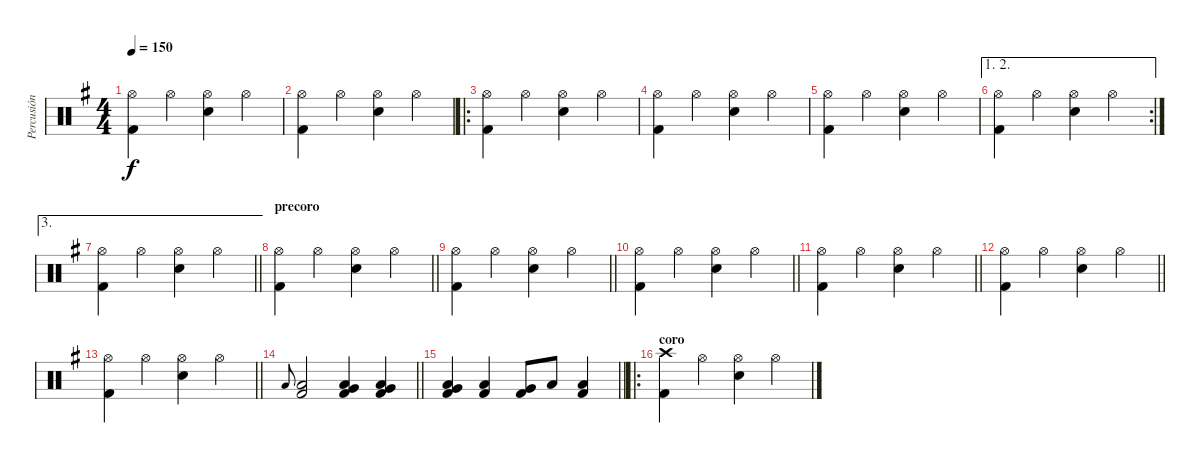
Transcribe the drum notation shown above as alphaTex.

\track ("Percusión" "Percusión") {instrument percussion}
\staff {score}
\articulation defaults
\ts (4 4)
\tempo 150
\clef neutral
\ks eminor
("Hi-Hat (open)" "Kick (hit) 2").4{dy f} "Hi-Hat (open)".4 ("Hi-Hat (open)" "Electric Snare (hit)").4 "Hi-Hat (open)".4 |
("Hi-Hat (open)" "Kick (hit) 2").4 "Hi-Hat (open)".4 ("Hi-Hat (open)" "Electric Snare (hit)").4 "Hi-Hat (open)".4 |
\ro
("Hi-Hat (open)" "Kick (hit) 2").4 "Hi-Hat (open)".4 ("Hi-Hat (open)" "Electric Snare (hit)").4 "Hi-Hat (open)".4 |
("Hi-Hat (open)" "Kick (hit) 2").4 "Hi-Hat (open)".4 ("Hi-Hat (open)" "Electric Snare (hit)").4 "Hi-Hat (open)".4 |
("Hi-Hat (open)" "Kick (hit) 2").4 "Hi-Hat (open)".4 ("Hi-Hat (open)" "Electric Snare (hit)").4 "Hi-Hat (open)".4 |
\ae (1 2)
\rc 2
("Hi-Hat (open)" "Kick (hit) 2").4 "Hi-Hat (open)".4 ("Hi-Hat (open)" "Electric Snare (hit)").4 "Hi-Hat (open)".4 |
\ae 3
\barLineRight lightlight
("Hi-Hat (open)" "Kick (hit) 2").4 "Hi-Hat (open)".4 ("Hi-Hat (open)" "Electric Snare (hit)").4 "Hi-Hat (open)".4 |
\section ("" "precoro")
\barLineRight lightlight
("Hi-Hat (open)" "Kick (hit) 2").4 "Hi-Hat (open)".4 ("Hi-Hat (open)" "Electric Snare (hit)").4 "Hi-Hat (open)".4 |
\barLineRight lightlight
("Hi-Hat (open)" "Kick (hit) 2").4 "Hi-Hat (open)".4 ("Hi-Hat (open)" "Electric Snare (hit)").4 "Hi-Hat (open)".4 |
\barLineRight lightlight
("Hi-Hat (open)" "Kick (hit) 2").4 "Hi-Hat (open)".4 ("Hi-Hat (open)" "Electric Snare (hit)").4 "Hi-Hat (open)".4 |
\barLineRight lightlight
("Hi-Hat (open)" "Kick (hit) 2").4 "Hi-Hat (open)".4 ("Hi-Hat (open)" "Electric Snare (hit)").4 "Hi-Hat (open)".4 |
\barLineRight lightlight
("Hi-Hat (open)" "Kick (hit) 2").4 "Hi-Hat (open)".4 ("Hi-Hat (open)" "Electric Snare (hit)").4 "Hi-Hat (open)".4 |
\barLineRight lightlight
("Hi-Hat (open)" "Kick (hit) 2").4 "Hi-Hat (open)".4 ("Hi-Hat (open)" "Electric Snare (hit)").4 "Hi-Hat (open)".4 |
\barLineRight lightlight "Low Floor Tom (hit)".8{gr onbeat}
("Low Floor Tom (hit)" "Kick (hit) 2").2 ("Very Low Tom (hit)" "Low Floor Tom (hit)" "Kick (hit) 2").4 ("Very Low Tom (hit)" "Low Floor Tom (hit)" "Kick (hit) 2").4 |
\barLineRight lightlight
("Very Low Tom (hit)" "Low Floor Tom (hit)" "Kick (hit) 2").4 ("Low Tom (hit)" "Kick (hit) 2").4 ("Very Low Tom (hit)" "Kick (hit) 2").8 "Low Floor Tom (hit)".8 ("Low Floor Tom (hit)" "Kick (hit) 2").4 |
\ro
\section ("" "coro")
("Crash high (hit)" "Kick (hit) 2").4 "Hi-Hat (open)".4 ("Hi-Hat (open)" "Electric Snare (hit)").4 "Hi-Hat (open)".4
